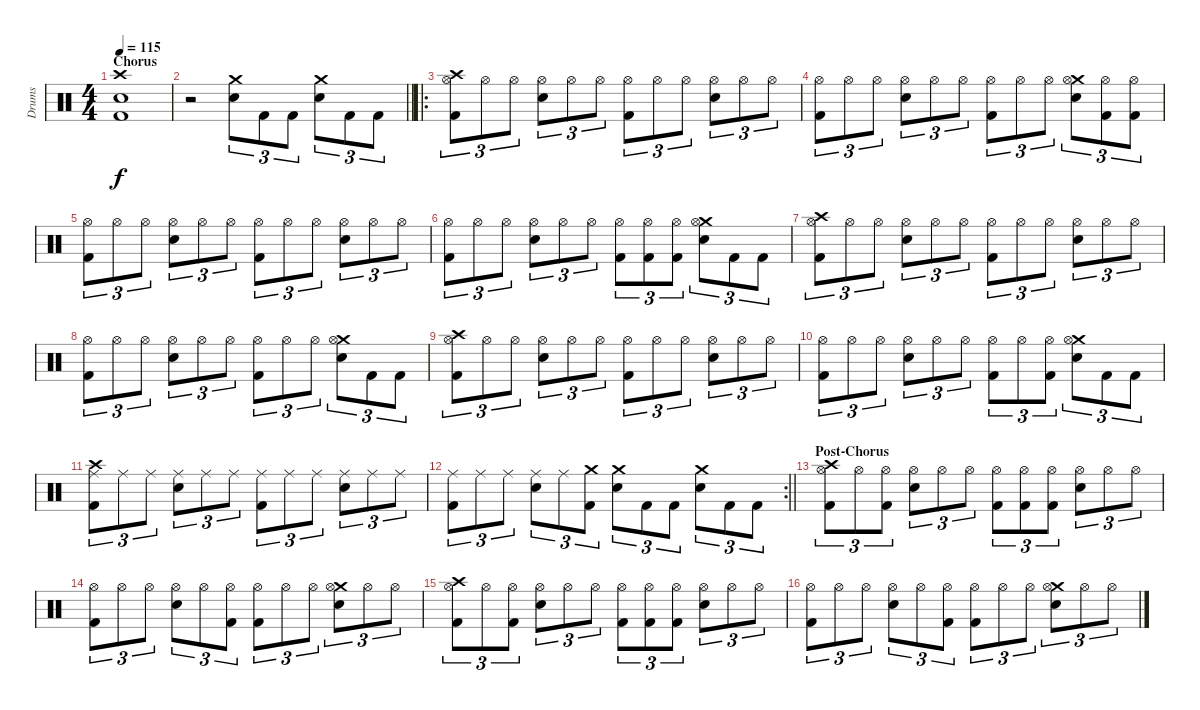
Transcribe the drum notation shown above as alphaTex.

\track ("Drums" "Drums") {instrument percussion}
\staff {score}
\articulation defaults
\ts (4 4)
\section ("" "Chorus")
\tempo 115
\clef neutral
\ks c
("Crash high (hit)" "Snare (hit) 2" "Kick (hit) 2").1{dy f} |
\barLineRight lightlight
r.2 ("Crash medium (hit)" "Snare (hit) 2").8{tu (3 2)} "Kick (hit) 2".8{tu (3 2)} "Kick (hit) 2".8{tu (3 2)} ("Crash medium (hit)" "Snare (hit) 2").8{tu (3 2)} "Kick (hit) 2".8{tu (3 2)} "Kick (hit) 2".8{tu (3 2)} |
\ro
("Crash high (hit)" "Hi-Hat (open)" "Kick (hit) 2").8{tu (3 2)} "Hi-Hat (open)".8{tu (3 2)} "Hi-Hat (open)".8{tu (3 2)} ("Hi-Hat (open)" "Snare (hit) 2").8{tu (3 2)} "Hi-Hat (open)".8{tu (3 2)} "Hi-Hat (open)".8{tu (3 2)} ("Hi-Hat (open)" "Kick (hit) 2").8{tu (3 2)} "Hi-Hat (open)".8{tu (3 2)} "Hi-Hat (open)".8{tu (3 2)} ("Hi-Hat (open)" "Snare (hit) 2").8{tu (3 2)} "Hi-Hat (open)".8{tu (3 2)} "Hi-Hat (open)".8{tu (3 2)} |
("Hi-Hat (open)" "Kick (hit) 2").8{tu (3 2)} "Hi-Hat (open)".8{tu (3 2)} "Hi-Hat (open)".8{tu (3 2)} ("Hi-Hat (open)" "Snare (hit) 2").8{tu (3 2)} "Hi-Hat (open)".8{tu (3 2)} "Hi-Hat (open)".8{tu (3 2)} ("Hi-Hat (open)" "Kick (hit) 2").8{tu (3 2)} "Hi-Hat (open)".8{tu (3 2)} "Hi-Hat (open)".8{tu (3 2)} ("Crash medium (hit)" "Hi-Hat (open)" "Snare (hit) 2").8{tu (3 2)} ("Hi-Hat (open)" "Kick (hit) 2").8{tu (3 2)} ("Hi-Hat (open)" "Kick (hit) 2").8{tu (3 2)} |
("Hi-Hat (open)" "Kick (hit) 2").8{tu (3 2)} "Hi-Hat (open)".8{tu (3 2)} "Hi-Hat (open)".8{tu (3 2)} ("Hi-Hat (open)" "Snare (hit) 2").8{tu (3 2)} "Hi-Hat (open)".8{tu (3 2)} "Hi-Hat (open)".8{tu (3 2)} ("Hi-Hat (open)" "Kick (hit) 2").8{tu (3 2)} "Hi-Hat (open)".8{tu (3 2)} "Hi-Hat (open)".8{tu (3 2)} ("Hi-Hat (open)" "Snare (hit) 2").8{tu (3 2)} "Hi-Hat (open)".8{tu (3 2)} "Hi-Hat (open)".8{tu (3 2)} |
("Hi-Hat (open)" "Kick (hit) 2").8{tu (3 2)} "Hi-Hat (open)".8{tu (3 2)} "Hi-Hat (open)".8{tu (3 2)} ("Hi-Hat (open)" "Snare (hit) 2").8{tu (3 2)} "Hi-Hat (open)".8{tu (3 2)} "Hi-Hat (open)".8{tu (3 2)} ("Hi-Hat (open)" "Kick (hit) 2").8{tu (3 2)} ("Hi-Hat (open)" "Kick (hit) 2").8{tu (3 2)} ("Hi-Hat (open)" "Kick (hit) 2").8{tu (3 2)} ("Crash medium (hit)" "Hi-Hat (open)" "Snare (hit) 2").8{tu (3 2)} "Kick (hit) 2".8{tu (3 2)} "Kick (hit) 2".8{tu (3 2)} |
("Crash high (hit)" "Hi-Hat (open)" "Kick (hit) 2").8{tu (3 2)} "Hi-Hat (open)".8{tu (3 2)} "Hi-Hat (open)".8{tu (3 2)} ("Hi-Hat (open)" "Snare (hit) 2").8{tu (3 2)} "Hi-Hat (open)".8{tu (3 2)} "Hi-Hat (open)".8{tu (3 2)} ("Hi-Hat (open)" "Kick (hit) 2").8{tu (3 2)} "Hi-Hat (open)".8{tu (3 2)} "Hi-Hat (open)".8{tu (3 2)} ("Hi-Hat (open)" "Snare (hit) 2").8{tu (3 2)} "Hi-Hat (open)".8{tu (3 2)} "Hi-Hat (open)".8{tu (3 2)} |
("Hi-Hat (open)" "Kick (hit) 2").8{tu (3 2)} "Hi-Hat (open)".8{tu (3 2)} "Hi-Hat (open)".8{tu (3 2)} ("Hi-Hat (open)" "Snare (hit) 2").8{tu (3 2)} "Hi-Hat (open)".8{tu (3 2)} "Hi-Hat (open)".8{tu (3 2)} ("Hi-Hat (open)" "Kick (hit) 2").8{tu (3 2)} "Hi-Hat (open)".8{tu (3 2)} "Hi-Hat (open)".8{tu (3 2)} ("Crash medium (hit)" "Hi-Hat (open)" "Snare (hit) 2").8{tu (3 2)} "Kick (hit) 2".8{tu (3 2)} "Kick (hit) 2".8{tu (3 2)} |
("Crash high (hit)" "Hi-Hat (open)" "Kick (hit) 2").8{tu (3 2)} "Hi-Hat (open)".8{tu (3 2)} "Hi-Hat (open)".8{tu (3 2)} ("Hi-Hat (open)" "Snare (hit) 2").8{tu (3 2)} "Hi-Hat (open)".8{tu (3 2)} "Hi-Hat (open)".8{tu (3 2)} ("Hi-Hat (open)" "Kick (hit) 2").8{tu (3 2)} "Hi-Hat (open)".8{tu (3 2)} "Hi-Hat (open)".8{tu (3 2)} ("Hi-Hat (open)" "Snare (hit) 2").8{tu (3 2)} "Hi-Hat (open)".8{tu (3 2)} "Hi-Hat (open)".8{tu (3 2)} |
("Hi-Hat (open)" "Kick (hit) 2").8{tu (3 2)} "Hi-Hat (open)".8{tu (3 2)} "Hi-Hat (open)".8{tu (3 2)} ("Hi-Hat (open)" "Snare (hit) 2").8{tu (3 2)} "Hi-Hat (open)".8{tu (3 2)} "Hi-Hat (open)".8{tu (3 2)} ("Hi-Hat (open)" "Kick (hit) 2").8{tu (3 2)} "Hi-Hat (open)".8{tu (3 2)} ("Hi-Hat (open)" "Kick (hit) 2").8{tu (3 2)} ("Crash medium (hit)" "Hi-Hat (open)" "Snare (hit) 2").8{tu (3 2)} "Kick (hit) 2".8{tu (3 2)} "Kick (hit) 2".8{tu (3 2)} |
("Crash high (hit)" "Ride (middle)" "Kick (hit) 2").8{tu (3 2)} "Ride (middle)".8{tu (3 2)} "Ride (middle)".8{tu (3 2)} ("Ride (middle)" "Snare (hit) 2").8{tu (3 2)} "Ride (middle)".8{tu (3 2)} "Ride (middle)".8{tu (3 2)} ("Ride (middle)" "Kick (hit) 2").8{tu (3 2)} "Ride (middle)".8{tu (3 2)} "Ride (middle)".8{tu (3 2)} ("Ride (middle)" "Snare (hit) 2").8{tu (3 2)} "Ride (middle)".8{tu (3 2)} "Ride (middle)".8{tu (3 2)} |
\rc 2
\barLineRight lightlight
("Ride (middle)" "Kick (hit) 2").8{tu (3 2)} "Ride (middle)".8{tu (3 2)} "Ride (middle)".8{tu (3 2)} ("Ride (middle)" "Snare (hit) 2").8{tu (3 2)} "Ride (middle)".8{tu (3 2)} ("Crash medium (hit)" "Kick (hit) 2").8{tu (3 2)} ("Crash medium (hit)" "Snare (hit) 2").8{tu (3 2)} "Kick (hit) 2".8{tu (3 2)} "Kick (hit) 2".8{tu (3 2)} ("Crash medium (hit)" "Snare (hit) 2").8{tu (3 2)} "Kick (hit) 2".8{tu (3 2)} "Kick (hit) 2".8{tu (3 2)} |
\section ("" "Post-Chorus")
("Crash high (hit)" "Hi-Hat (open)" "Kick (hit) 2").8{tu (3 2)} "Hi-Hat (open)".8{tu (3 2)} ("Hi-Hat (open)" "Kick (hit) 2").8{tu (3 2)} ("Hi-Hat (open)" "Snare (hit) 2").8{tu (3 2)} "Hi-Hat (open)".8{tu (3 2)} "Hi-Hat (open)".8{tu (3 2)} ("Hi-Hat (open)" "Kick (hit) 2").8{tu (3 2)} ("Hi-Hat (open)" "Kick (hit) 2").8{tu (3 2)} ("Hi-Hat (open)" "Kick (hit) 2").8{tu (3 2)} ("Hi-Hat (open)" "Snare (hit) 2").8{tu (3 2)} "Hi-Hat (open)".8{tu (3 2)} "Hi-Hat (open)".8{tu (3 2)} |
("Hi-Hat (open)" "Kick (hit) 2").8{tu (3 2)} "Hi-Hat (open)".8{tu (3 2)} "Hi-Hat (open)".8{tu (3 2)} ("Hi-Hat (open)" "Snare (hit) 2").8{tu (3 2)} "Hi-Hat (open)".8{tu (3 2)} ("Hi-Hat (open)" "Kick (hit) 2").8{tu (3 2)} ("Hi-Hat (open)" "Kick (hit) 2").8{tu (3 2)} "Hi-Hat (open)".8{tu (3 2)} "Hi-Hat (open)".8{tu (3 2)} ("Crash medium (hit)" "Hi-Hat (open)" "Snare (hit) 2").8{tu (3 2)} "Hi-Hat (open)".8{tu (3 2)} "Hi-Hat (open)".8{tu (3 2)} |
("Crash high (hit)" "Hi-Hat (open)" "Kick (hit) 2").8{tu (3 2)} "Hi-Hat (open)".8{tu (3 2)} ("Hi-Hat (open)" "Kick (hit) 2").8{tu (3 2)} ("Hi-Hat (open)" "Snare (hit) 2").8{tu (3 2)} "Hi-Hat (open)".8{tu (3 2)} "Hi-Hat (open)".8{tu (3 2)} ("Hi-Hat (open)" "Kick (hit) 2").8{tu (3 2)} ("Hi-Hat (open)" "Kick (hit) 2").8{tu (3 2)} ("Hi-Hat (open)" "Kick (hit) 2").8{tu (3 2)} ("Hi-Hat (open)" "Snare (hit) 2").8{tu (3 2)} "Hi-Hat (open)".8{tu (3 2)} "Hi-Hat (open)".8{tu (3 2)} |
("Hi-Hat (open)" "Kick (hit) 2").8{tu (3 2)} "Hi-Hat (open)".8{tu (3 2)} "Hi-Hat (open)".8{tu (3 2)} ("Hi-Hat (open)" "Snare (hit) 2").8{tu (3 2)} "Hi-Hat (open)".8{tu (3 2)} ("Hi-Hat (open)" "Kick (hit) 2").8{tu (3 2)} ("Hi-Hat (open)" "Kick (hit) 2").8{tu (3 2)} "Hi-Hat (open)".8{tu (3 2)} "Hi-Hat (open)".8{tu (3 2)} ("Crash medium (hit)" "Hi-Hat (open)" "Snare (hit) 2").8{tu (3 2)} "Hi-Hat (open)".8{tu (3 2)} "Hi-Hat (open)".8{tu (3 2)}
